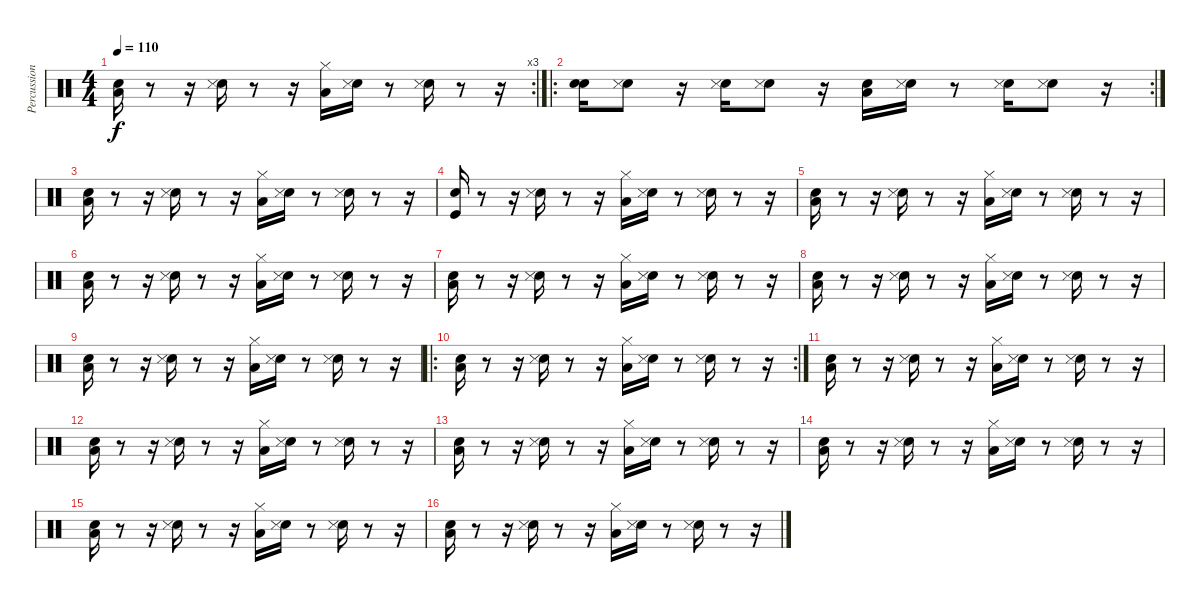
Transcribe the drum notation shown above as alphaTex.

\track ("Percussions" "Percussion") {instrument percussion}
\staff {score}
\articulation defaults
\rc 3
\ts (4 4)
\tempo 110
\clef neutral
\ks c
("Low Floor Tom (hit)" "Snare (hit) 2").16{dy f} r.8 r.16 ("Electric Snare (hit)" "Snare (side stick) 3").16 r.8 r.16 ("Low Floor Tom (hit)" "Hi-Hat (closed)").16 ("Electric Snare (hit)" "Snare (side stick) 3").16 r.8 ("Electric Snare (hit)" "Snare (side stick) 3").16 r.8 r.16 |
\ro
\rc 2
("Electric Snare (hit)" "Snare (hit) 2").16 ("Electric Snare (hit)" "Snare (side stick) 3").8 r.16 ("Electric Snare (hit)" "Snare (side stick) 3").16 ("Electric Snare (hit)" "Snare (side stick) 3").8 r.16 ("Low Floor Tom (hit)" "Snare (hit) 2").16 ("Electric Snare (hit)" "Snare (side stick) 3").16 r.8 ("Electric Snare (hit)" "Snare (side stick) 3").16 ("Electric Snare (hit)" "Snare (side stick) 3").8 r.16 |
("Low Floor Tom (hit)" "Snare (hit) 2").16 r.8 r.16 ("Electric Snare (hit)" "Snare (side stick) 3").16 r.8 r.16 ("Low Floor Tom (hit)" "Hi-Hat (closed)").16 ("Electric Snare (hit)" "Snare (side stick) 3").16 r.8 ("Electric Snare (hit)" "Snare (side stick) 3").16 r.8 r.16 |
("Kick (hit)" "Snare (hit) 2").16 r.8 r.16 ("Electric Snare (hit)" "Snare (side stick) 3").16 r.8 r.16 ("Low Floor Tom (hit)" "Hi-Hat (closed)").16 ("Electric Snare (hit)" "Snare (side stick) 3").16 r.8 ("Electric Snare (hit)" "Snare (side stick) 3").16 r.8 r.16 |
("Low Floor Tom (hit)" "Snare (hit) 2").16 r.8 r.16 ("Electric Snare (hit)" "Snare (side stick) 3").16 r.8 r.16 ("Low Floor Tom (hit)" "Hi-Hat (closed)").16 ("Electric Snare (hit)" "Snare (side stick) 3").16 r.8 ("Electric Snare (hit)" "Snare (side stick) 3").16 r.8 r.16 |
("Low Floor Tom (hit)" "Snare (hit) 2").16 r.8 r.16 ("Electric Snare (hit)" "Snare (side stick) 3").16 r.8 r.16 ("Low Floor Tom (hit)" "Hi-Hat (closed)").16 ("Electric Snare (hit)" "Snare (side stick) 3").16 r.8 ("Electric Snare (hit)" "Snare (side stick) 3").16 r.8 r.16 |
("Low Floor Tom (hit)" "Snare (hit) 2").16 r.8 r.16 ("Electric Snare (hit)" "Snare (side stick) 3").16 r.8 r.16 ("Low Floor Tom (hit)" "Hi-Hat (closed)").16 ("Electric Snare (hit)" "Snare (side stick) 3").16 r.8 ("Electric Snare (hit)" "Snare (side stick) 3").16 r.8 r.16 |
("Low Floor Tom (hit)" "Snare (hit) 2").16 r.8 r.16 ("Electric Snare (hit)" "Snare (side stick) 3").16 r.8 r.16 ("Low Floor Tom (hit)" "Hi-Hat (closed)").16 ("Electric Snare (hit)" "Snare (side stick) 3").16 r.8 ("Electric Snare (hit)" "Snare (side stick) 3").16 r.8 r.16 |
("Low Floor Tom (hit)" "Snare (hit) 2").16 r.8 r.16 ("Electric Snare (hit)" "Snare (side stick) 3").16 r.8 r.16 ("Low Floor Tom (hit)" "Hi-Hat (closed)").16 ("Electric Snare (hit)" "Snare (side stick) 3").16 r.8 ("Electric Snare (hit)" "Snare (side stick) 3").16 r.8 r.16 |
\ro
\rc 2
("Low Floor Tom (hit)" "Snare (hit) 2").16 r.8 r.16 ("Electric Snare (hit)" "Snare (side stick) 3").16 r.8 r.16 ("Low Floor Tom (hit)" "Hi-Hat (closed)").16 ("Electric Snare (hit)" "Snare (side stick) 3").16 r.8 ("Electric Snare (hit)" "Snare (side stick) 3").16 r.8 r.16 |
("Low Floor Tom (hit)" "Snare (hit) 2").16 r.8 r.16 ("Electric Snare (hit)" "Snare (side stick) 3").16 r.8 r.16 ("Low Floor Tom (hit)" "Hi-Hat (closed)").16 ("Electric Snare (hit)" "Snare (side stick) 3").16 r.8 ("Electric Snare (hit)" "Snare (side stick) 3").16 r.8 r.16 |
("Low Floor Tom (hit)" "Snare (hit) 2").16 r.8 r.16 ("Electric Snare (hit)" "Snare (side stick) 3").16 r.8 r.16 ("Low Floor Tom (hit)" "Hi-Hat (closed)").16 ("Electric Snare (hit)" "Snare (side stick) 3").16 r.8 ("Electric Snare (hit)" "Snare (side stick) 3").16 r.8 r.16 |
("Low Floor Tom (hit)" "Snare (hit) 2").16 r.8 r.16 ("Electric Snare (hit)" "Snare (side stick) 3").16 r.8 r.16 ("Low Floor Tom (hit)" "Hi-Hat (closed)").16 ("Electric Snare (hit)" "Snare (side stick) 3").16 r.8 ("Electric Snare (hit)" "Snare (side stick) 3").16 r.8 r.16 |
("Low Floor Tom (hit)" "Snare (hit) 2").16 r.8 r.16 ("Electric Snare (hit)" "Snare (side stick) 3").16 r.8 r.16 ("Low Floor Tom (hit)" "Hi-Hat (closed)").16 ("Electric Snare (hit)" "Snare (side stick) 3").16 r.8 ("Electric Snare (hit)" "Snare (side stick) 3").16 r.8 r.16 |
("Low Floor Tom (hit)" "Snare (hit) 2").16 r.8 r.16 ("Electric Snare (hit)" "Snare (side stick) 3").16 r.8 r.16 ("Low Floor Tom (hit)" "Hi-Hat (closed)").16 ("Electric Snare (hit)" "Snare (side stick) 3").16 r.8 ("Electric Snare (hit)" "Snare (side stick) 3").16 r.8 r.16 |
("Low Floor Tom (hit)" "Snare (hit) 2").16 r.8 r.16 ("Electric Snare (hit)" "Snare (side stick) 3").16 r.8 r.16 ("Low Floor Tom (hit)" "Hi-Hat (closed)").16 ("Electric Snare (hit)" "Snare (side stick) 3").16 r.8 ("Electric Snare (hit)" "Snare (side stick) 3").16 r.8 r.16
